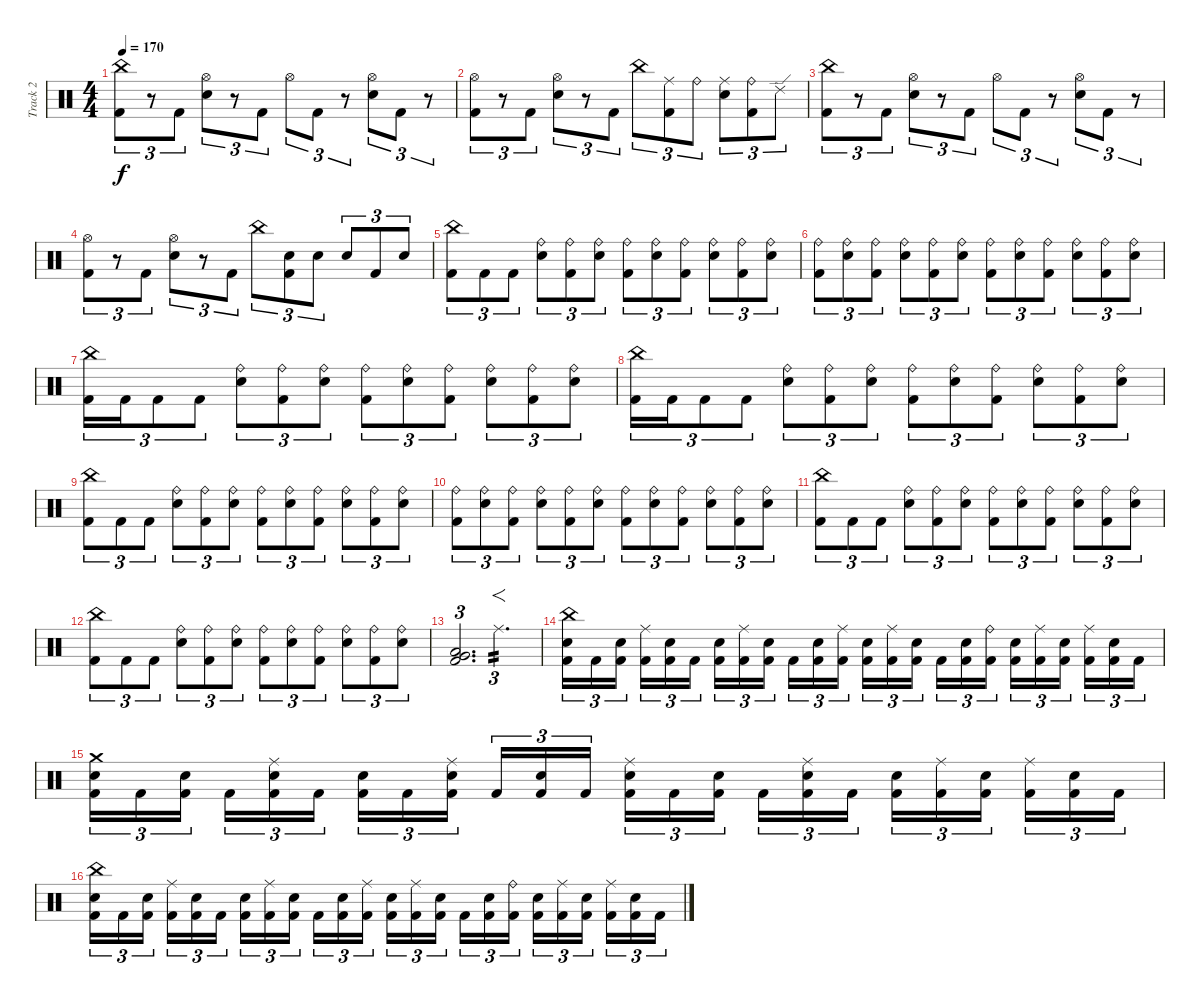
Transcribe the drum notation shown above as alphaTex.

\track ("Track 2" "Track 2") {instrument percussion}
\staff {score}
\articulation defaults
\ts (4 4)
\tempo 170
\clef neutral
\ks c
("China (hit)" "Kick (hit) 2").8{tu (3 2) dy f} r.8{tu (3 2)} "Kick (hit) 2".8{tu (3 2)} ("Hi-Hat (open)" "Electric Snare (hit)").8{tu (3 2)} r.8{tu (3 2)} "Kick (hit) 2".8{tu (3 2)} "Hi-Hat (open)".8{tu (3 2)} "Kick (hit) 2".8{tu (3 2)} r.8{tu (3 2)} ("Hi-Hat (open)" "Electric Snare (hit)").8{tu (3 2)} "Kick (hit) 2".8{tu (3 2)} r.8{tu (3 2)} |
("Hi-Hat (open)" "Kick (hit) 2").8{tu (3 2)} r.8{tu (3 2)} "Kick (hit) 2".8{tu (3 2)} ("Hi-Hat (open)" "Electric Snare (hit)").8{tu (3 2)} r.8{tu (3 2)} "Kick (hit) 2".8{tu (3 2)} "China (hit)".8{tu (3 2)} ("Ride (middle)" "Kick (hit) 2").8{tu (3 2)} "Ride (bell)".8{tu (3 2)} ("Ride (middle)" "Electric Snare (hit)").8{tu (3 2)} ("Ride (bell)" "Kick (hit) 2").8{tu (3 2)} "Ride (edge) 2".8{tu (3 2)} |
("China (hit)" "Kick (hit) 2").8{tu (3 2)} r.8{tu (3 2)} "Kick (hit) 2".8{tu (3 2)} ("Hi-Hat (open)" "Electric Snare (hit)").8{tu (3 2)} r.8{tu (3 2)} "Kick (hit) 2".8{tu (3 2)} "Hi-Hat (open)".8{tu (3 2)} "Kick (hit) 2".8{tu (3 2)} r.8{tu (3 2)} ("Hi-Hat (open)" "Electric Snare (hit)").8{tu (3 2)} "Kick (hit) 2".8{tu (3 2)} r.8{tu (3 2)} |
("Hi-Hat (open)" "Kick (hit) 2").8{tu (3 2)} r.8{tu (3 2)} "Kick (hit) 2".8{tu (3 2)} ("Hi-Hat (open)" "Electric Snare (hit)").8{tu (3 2)} r.8{tu (3 2)} "Kick (hit) 2".8{tu (3 2)} "China (hit)".8{tu (3 2)} ("Electric Snare (hit)" "Kick (hit) 2").8{tu (3 2)} "Electric Snare (hit)".8{tu (3 2)} "Electric Snare (hit)".8{tu (3 2)} "Kick (hit) 2".8{tu (3 2)} "Electric Snare (hit)".8{tu (3 2)} |
("China (hit)" "Kick (hit) 2").8{tu (3 2)} "Kick (hit) 2".8{tu (3 2)} "Kick (hit) 2".8{tu (3 2)} ("Ride (bell)" "Electric Snare (hit)").8{tu (3 2)} ("Ride (bell)" "Kick (hit) 2").8{tu (3 2)} ("Ride (bell)" "Electric Snare (hit)").8{tu (3 2)} ("Ride (bell)" "Kick (hit) 2").8{tu (3 2)} ("Ride (bell)" "Electric Snare (hit)").8{tu (3 2)} ("Ride (bell)" "Kick (hit) 2").8{tu (3 2)} ("Ride (bell)" "Electric Snare (hit)").8{tu (3 2)} ("Ride (bell)" "Kick (hit) 2").8{tu (3 2)} ("Ride (bell)" "Electric Snare (hit)").8{tu (3 2)} |
("Ride (bell)" "Kick (hit) 2").8{tu (3 2)} ("Ride (bell)" "Electric Snare (hit)").8{tu (3 2)} ("Ride (bell)" "Kick (hit) 2").8{tu (3 2)} ("Ride (bell)" "Electric Snare (hit)").8{tu (3 2)} ("Ride (bell)" "Kick (hit) 2").8{tu (3 2)} ("Ride (bell)" "Electric Snare (hit)").8{tu (3 2)} ("Ride (bell)" "Kick (hit) 2").8{tu (3 2)} ("Ride (bell)" "Electric Snare (hit)").8{tu (3 2)} ("Ride (bell)" "Kick (hit) 2").8{tu (3 2)} ("Ride (bell)" "Electric Snare (hit)").8{tu (3 2)} ("Ride (bell)" "Kick (hit) 2").8{tu (3 2)} ("Ride (bell)" "Electric Snare (hit)").8{tu (3 2)} |
("China (hit)" "Kick (hit) 2").16{tu (3 2)} "Kick (hit) 2".16{tu (3 2)} "Kick (hit) 2".8{tu (3 2)} "Kick (hit) 2".8{tu (3 2)} ("Ride (bell)" "Electric Snare (hit)").8{tu (3 2)} ("Ride (bell)" "Kick (hit) 2").8{tu (3 2)} ("Ride (bell)" "Electric Snare (hit)").8{tu (3 2)} ("Ride (bell)" "Kick (hit) 2").8{tu (3 2)} ("Ride (bell)" "Electric Snare (hit)").8{tu (3 2)} ("Ride (bell)" "Kick (hit) 2").8{tu (3 2)} ("Ride (bell)" "Electric Snare (hit)").8{tu (3 2)} ("Ride (bell)" "Kick (hit) 2").8{tu (3 2)} ("Ride (bell)" "Electric Snare (hit)").8{tu (3 2)} |
("China (hit)" "Kick (hit) 2").16{tu (3 2)} "Kick (hit) 2".16{tu (3 2)} "Kick (hit) 2".8{tu (3 2)} "Kick (hit) 2".8{tu (3 2)} ("Ride (bell)" "Electric Snare (hit)").8{tu (3 2)} ("Ride (bell)" "Kick (hit) 2").8{tu (3 2)} ("Ride (bell)" "Electric Snare (hit)").8{tu (3 2)} ("Ride (bell)" "Kick (hit) 2").8{tu (3 2)} ("Ride (bell)" "Electric Snare (hit)").8{tu (3 2)} ("Ride (bell)" "Kick (hit) 2").8{tu (3 2)} ("Ride (bell)" "Electric Snare (hit)").8{tu (3 2)} ("Ride (bell)" "Kick (hit) 2").8{tu (3 2)} ("Ride (bell)" "Electric Snare (hit)").8{tu (3 2)} |
("China (hit)" "Kick (hit) 2").8{tu (3 2)} "Kick (hit) 2".8{tu (3 2)} "Kick (hit) 2".8{tu (3 2)} ("Ride (bell)" "Electric Snare (hit)").8{tu (3 2)} ("Ride (bell)" "Kick (hit) 2").8{tu (3 2)} ("Ride (bell)" "Electric Snare (hit)").8{tu (3 2)} ("Ride (bell)" "Kick (hit) 2").8{tu (3 2)} ("Ride (bell)" "Electric Snare (hit)").8{tu (3 2)} ("Ride (bell)" "Kick (hit) 2").8{tu (3 2)} ("Ride (bell)" "Electric Snare (hit)").8{tu (3 2)} ("Ride (bell)" "Kick (hit) 2").8{tu (3 2)} ("Ride (bell)" "Electric Snare (hit)").8{tu (3 2)} |
("Ride (bell)" "Kick (hit) 2").8{tu (3 2)} ("Ride (bell)" "Electric Snare (hit)").8{tu (3 2)} ("Ride (bell)" "Kick (hit) 2").8{tu (3 2)} ("Ride (bell)" "Electric Snare (hit)").8{tu (3 2)} ("Ride (bell)" "Kick (hit) 2").8{tu (3 2)} ("Ride (bell)" "Electric Snare (hit)").8{tu (3 2)} ("Ride (bell)" "Kick (hit) 2").8{tu (3 2)} ("Ride (bell)" "Electric Snare (hit)").8{tu (3 2)} ("Ride (bell)" "Kick (hit) 2").8{tu (3 2)} ("Ride (bell)" "Electric Snare (hit)").8{tu (3 2)} ("Ride (bell)" "Kick (hit) 2").8{tu (3 2)} ("Ride (bell)" "Electric Snare (hit)").8{tu (3 2)} |
("China (hit)" "Kick (hit) 2").8{tu (3 2)} "Kick (hit) 2".8{tu (3 2)} "Kick (hit) 2".8{tu (3 2)} ("Ride (bell)" "Electric Snare (hit)").8{tu (3 2)} ("Ride (bell)" "Kick (hit) 2").8{tu (3 2)} ("Ride (bell)" "Electric Snare (hit)").8{tu (3 2)} ("Ride (bell)" "Kick (hit) 2").8{tu (3 2)} ("Ride (bell)" "Electric Snare (hit)").8{tu (3 2)} ("Ride (bell)" "Kick (hit) 2").8{tu (3 2)} ("Ride (bell)" "Electric Snare (hit)").8{tu (3 2)} ("Ride (bell)" "Kick (hit) 2").8{tu (3 2)} ("Ride (bell)" "Electric Snare (hit)").8{tu (3 2)} |
("China (hit)" "Kick (hit) 2").8{tu (3 2)} "Kick (hit) 2".8{tu (3 2)} "Kick (hit) 2".8{tu (3 2)} ("Ride (bell)" "Electric Snare (hit)").8{tu (3 2)} ("Ride (bell)" "Kick (hit) 2").8{tu (3 2)} ("Ride (bell)" "Electric Snare (hit)").8{tu (3 2)} ("Ride (bell)" "Kick (hit) 2").8{tu (3 2)} ("Ride (bell)" "Electric Snare (hit)").8{tu (3 2)} ("Ride (bell)" "Kick (hit) 2").8{tu (3 2)} ("Ride (bell)" "Electric Snare (hit)").8{tu (3 2)} ("Ride (bell)" "Kick (hit) 2").8{tu (3 2)} ("Ride (bell)" "Electric Snare (hit)").8{tu (3 2)} |
("Low Tom (hit)" "Very Low Tom (hit)" "Kick (hit) 2").2{d tu (3 2)} "Ride (middle)".2{f d tu (3 2) tp 2} |
("China (hit)" "Electric Snare (hit)" "Kick (hit) 2").16{tu (3 2)} "Kick (hit) 2".16{tu (3 2)} ("Electric Snare (hit)" "Kick (hit) 2").16{tu (3 2)} ("Ride (middle)" "Kick (hit) 2").16{tu (3 2)} ("Electric Snare (hit)" "Kick (hit) 2").16{tu (3 2)} "Kick (hit) 2".16{tu (3 2)} ("Electric Snare (hit)" "Kick (hit) 2").16{tu (3 2)} ("Ride (middle)" "Kick (hit) 2").16{tu (3 2)} ("Electric Snare (hit)" "Kick (hit) 2").16{tu (3 2)} "Kick (hit) 2".16{tu (3 2)} ("Electric Snare (hit)" "Kick (hit) 2").16{tu (3 2)} ("Ride (middle)" "Kick (hit) 2").16{tu (3 2)} ("Electric Snare (hit)" "Kick (hit) 2").16{tu (3 2)} ("Ride (middle)" "Kick (hit) 2").16{tu (3 2)} ("Electric Snare (hit)" "Kick (hit) 2").16{tu (3 2)} "Kick (hit) 2".16{tu (3 2)} ("Electric Snare (hit)" "Kick (hit) 2").16{tu (3 2)} ("Ride (bell)" "Kick (hit) 2").16{tu (3 2)} ("Electric Snare (hit)" "Kick (hit) 2").16{tu (3 2)} ("Ride (middle)" "Kick (hit) 2").16{tu (3 2)} ("Electric Snare (hit)" "Kick (hit) 2").16{tu (3 2)} ("Ride (middle)" "Kick (hit) 2").16{tu (3 2)} ("Electric Snare (hit)" "Kick (hit) 2").16{tu (3 2)} "Kick (hit) 2".16{tu (3 2)} |
("Crash medium (hit)" "Electric Snare (hit)" "Kick (hit) 2").16{tu (3 2)} "Kick (hit) 2".16{tu (3 2)} ("Electric Snare (hit)" "Kick (hit) 2").16{tu (3 2)} "Kick (hit) 2".16{tu (3 2)} ("Ride (middle)" "Electric Snare (hit)" "Kick (hit) 2").16{tu (3 2)} "Kick (hit) 2".16{tu (3 2)} ("Electric Snare (hit)" "Kick (hit) 2").16{tu (3 2)} "Kick (hit) 2".16{tu (3 2)} ("Ride (middle)" "Electric Snare (hit)" "Kick (hit) 2").16{tu (3 2)} "Kick (hit) 2".16{tu (3 2)} ("Electric Snare (hit)" "Kick (hit) 2").16{tu (3 2)} "Kick (hit) 2".16{tu (3 2)} ("Ride (middle)" "Electric Snare (hit)" "Kick (hit) 2").16{tu (3 2)} "Kick (hit) 2".16{tu (3 2)} ("Electric Snare (hit)" "Kick (hit) 2").16{tu (3 2)} "Kick (hit) 2".16{tu (3 2)} ("Ride (middle)" "Electric Snare (hit)" "Kick (hit) 2").16{tu (3 2)} "Kick (hit) 2".16{tu (3 2)} ("Electric Snare (hit)" "Kick (hit) 2").16{tu (3 2)} ("Ride (middle)" "Kick (hit) 2").16{tu (3 2)} ("Electric Snare (hit)" "Kick (hit) 2").16{tu (3 2)} ("Ride (middle)" "Kick (hit) 2").16{tu (3 2)} ("Electric Snare (hit)" "Kick (hit) 2").16{tu (3 2)} "Kick (hit) 2".16{tu (3 2)} |
("China (hit)" "Electric Snare (hit)" "Kick (hit) 2").16{tu (3 2)} "Kick (hit) 2".16{tu (3 2)} ("Electric Snare (hit)" "Kick (hit) 2").16{tu (3 2)} ("Ride (middle)" "Kick (hit) 2").16{tu (3 2)} ("Electric Snare (hit)" "Kick (hit) 2").16{tu (3 2)} "Kick (hit) 2".16{tu (3 2)} ("Electric Snare (hit)" "Kick (hit) 2").16{tu (3 2)} ("Ride (middle)" "Kick (hit) 2").16{tu (3 2)} ("Electric Snare (hit)" "Kick (hit) 2").16{tu (3 2)} "Kick (hit) 2".16{tu (3 2)} ("Electric Snare (hit)" "Kick (hit) 2").16{tu (3 2)} ("Ride (middle)" "Kick (hit) 2").16{tu (3 2)} ("Electric Snare (hit)" "Kick (hit) 2").16{tu (3 2)} ("Ride (middle)" "Kick (hit) 2").16{tu (3 2)} ("Electric Snare (hit)" "Kick (hit) 2").16{tu (3 2)} "Kick (hit) 2".16{tu (3 2)} ("Electric Snare (hit)" "Kick (hit) 2").16{tu (3 2)} ("Ride (bell)" "Kick (hit) 2").16{tu (3 2)} ("Electric Snare (hit)" "Kick (hit) 2").16{tu (3 2)} ("Ride (middle)" "Kick (hit) 2").16{tu (3 2)} ("Electric Snare (hit)" "Kick (hit) 2").16{tu (3 2)} ("Ride (middle)" "Kick (hit) 2").16{tu (3 2)} ("Electric Snare (hit)" "Kick (hit) 2").16{tu (3 2)} "Kick (hit) 2".16{tu (3 2)}
